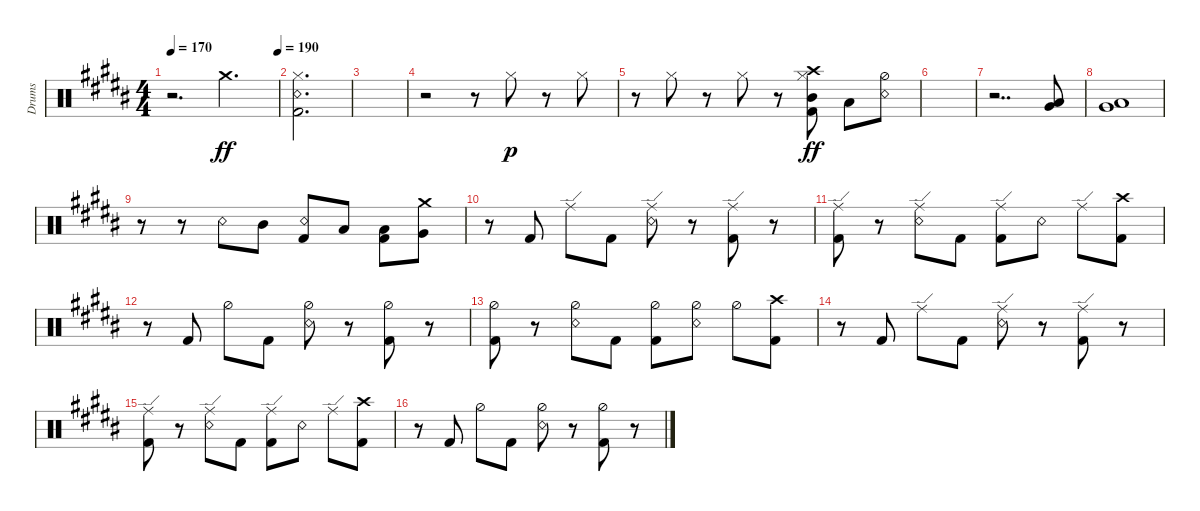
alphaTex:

\bracketExtendMode groupsimilarinstruments
\otherSystemsTrackNameOrientation horizontal
\track ("Drumkit" "Drums") {instrument percussion}
\staff {score}
\articulation defaults
\ts (4 4)
\tempo 170
\tempo (190 1)
\clef neutral
\ks b
r.2{d dy ff} "Crash medium (hit)"{acc forcenatural}.2{d} |
("Hi-Hat (closed)"{acc forcenatural} "Snare (rim shot)"{acc forcenatural} "Kick (hit) 2"{acc forcenatural}).2{d} |
|
r.2 r.8 "Hi-Hat (closed)"{acc forcenatural}.8{dy p} r.8 "Hi-Hat (closed)"{acc forcenatural}.8 |
r.8 "Hi-Hat (closed)"{acc forcenatural}.8 r.8 "Hi-Hat (closed)"{acc forcenatural}.8 r.8 ("Hi-Hat (closed)"{acc forcenatural} "Crash high (hit)"{acc forcenatural} "Kick (hit) 2"{acc forcenatural} "Mid Tom (hit)"{acc forcenatural}).8{dy ff} "Low Tom (hit)"{acc forcenatural}.8 ("Hi-Hat (half)"{acc forcenatural} "Snare (rim shot)"{acc forcenatural}).8 |
|
r.2{dd} ("Very Low Tom (hit)"{acc forcenatural} "Low Tom (hit)"{acc forcenatural}).8 |
("Very Low Tom (hit)"{acc forcenatural} "Low Tom (hit)"{acc forcenatural}).1 |
r.8 r.8 "Snare (rim shot)"{acc forcenatural}.8 "Mid Tom (hit)"{acc forcenatural}.8 ("Snare (rim shot)"{acc forcenatural} "Kick (hit) 2"{acc forcenatural}).8 "Low Tom (hit)"{acc forcenatural}.8 ("Low Tom (hit)"{acc forcenatural} "Kick (hit) 2"{acc forcenatural}).8 ("Very Low Tom (hit)"{acc forcenatural} "Crash medium (hit)"{acc forcenatural}).8 |
r.8 "Kick (hit) 2"{acc forcenatural}.8 "Ride (edge)"{acc forcenatural}.8 "Kick (hit) 2"{acc forcenatural}.8 ("Snare (rim shot)"{acc forcenatural} "Ride (edge)"{acc forcenatural}).8 r.8 ("Kick (hit) 2"{acc forcenatural} "Ride (edge)"{acc forcenatural}).8 r.8 |
("Kick (hit) 2"{acc forcenatural} "Ride (edge)"{acc forcenatural}).8 r.8 ("Snare (rim shot)"{acc forcenatural} "Ride (edge)"{acc forcenatural}).8 "Kick (hit) 2"{acc forcenatural}.8 ("Kick (hit) 2"{acc forcenatural} "Ride (edge)"{acc forcenatural}).8 "Snare (rim shot)"{acc forcenatural}.8 "Ride (edge)"{acc forcenatural}.8 ("Crash high (hit)"{acc forcenatural} "Kick (hit) 2"{acc forcenatural}).8 |
r.8 "Kick (hit) 2"{acc forcenatural}.8 "Hi-Hat (half)"{acc forcenatural}.8 "Kick (hit) 2"{acc forcenatural}.8 ("Snare (rim shot)"{acc forcenatural} "Hi-Hat (half)"{acc forcenatural}).8 r.8 ("Kick (hit) 2"{acc forcenatural} "Hi-Hat (half)"{acc forcenatural}).8 r.8 |
("Kick (hit) 2"{acc forcenatural} "Hi-Hat (half)"{acc forcenatural}).8 r.8 ("Snare (rim shot)"{acc forcenatural} "Hi-Hat (half)"{acc forcenatural}).8 "Kick (hit) 2"{acc forcenatural}.8 ("Kick (hit) 2"{acc forcenatural} "Hi-Hat (half)"{acc forcenatural}).8 ("Snare (rim shot)"{acc forcenatural} "Hi-Hat (half)"{acc forcenatural}).8 "Hi-Hat (half)"{acc forcenatural}.8 ("Crash high (hit)"{acc forcenatural} "Kick (hit) 2"{acc forcenatural}).8 |
r.8 "Kick (hit) 2"{acc forcenatural}.8 "Ride (edge)"{acc forcenatural}.8 "Kick (hit) 2"{acc forcenatural}.8 ("Snare (rim shot)"{acc forcenatural} "Ride (edge)"{acc forcenatural}).8 r.8 ("Kick (hit) 2"{acc forcenatural} "Ride (edge)"{acc forcenatural}).8 r.8 |
("Kick (hit) 2"{acc forcenatural} "Ride (edge)"{acc forcenatural}).8 r.8 ("Snare (rim shot)"{acc forcenatural} "Ride (edge)"{acc forcenatural}).8 "Kick (hit) 2"{acc forcenatural}.8 ("Kick (hit) 2"{acc forcenatural} "Ride (edge)"{acc forcenatural}).8 "Snare (rim shot)"{acc forcenatural}.8 "Ride (edge)"{acc forcenatural}.8 ("Crash high (hit)"{acc forcenatural} "Kick (hit) 2"{acc forcenatural}).8 |
r.8 "Kick (hit) 2"{acc forcenatural}.8 "Hi-Hat (half)"{acc forcenatural}.8 "Kick (hit) 2"{acc forcenatural}.8 ("Snare (rim shot)"{acc forcenatural} "Hi-Hat (half)"{acc forcenatural}).8 r.8 ("Kick (hit) 2"{acc forcenatural} "Hi-Hat (half)"{acc forcenatural}).8 r.8
